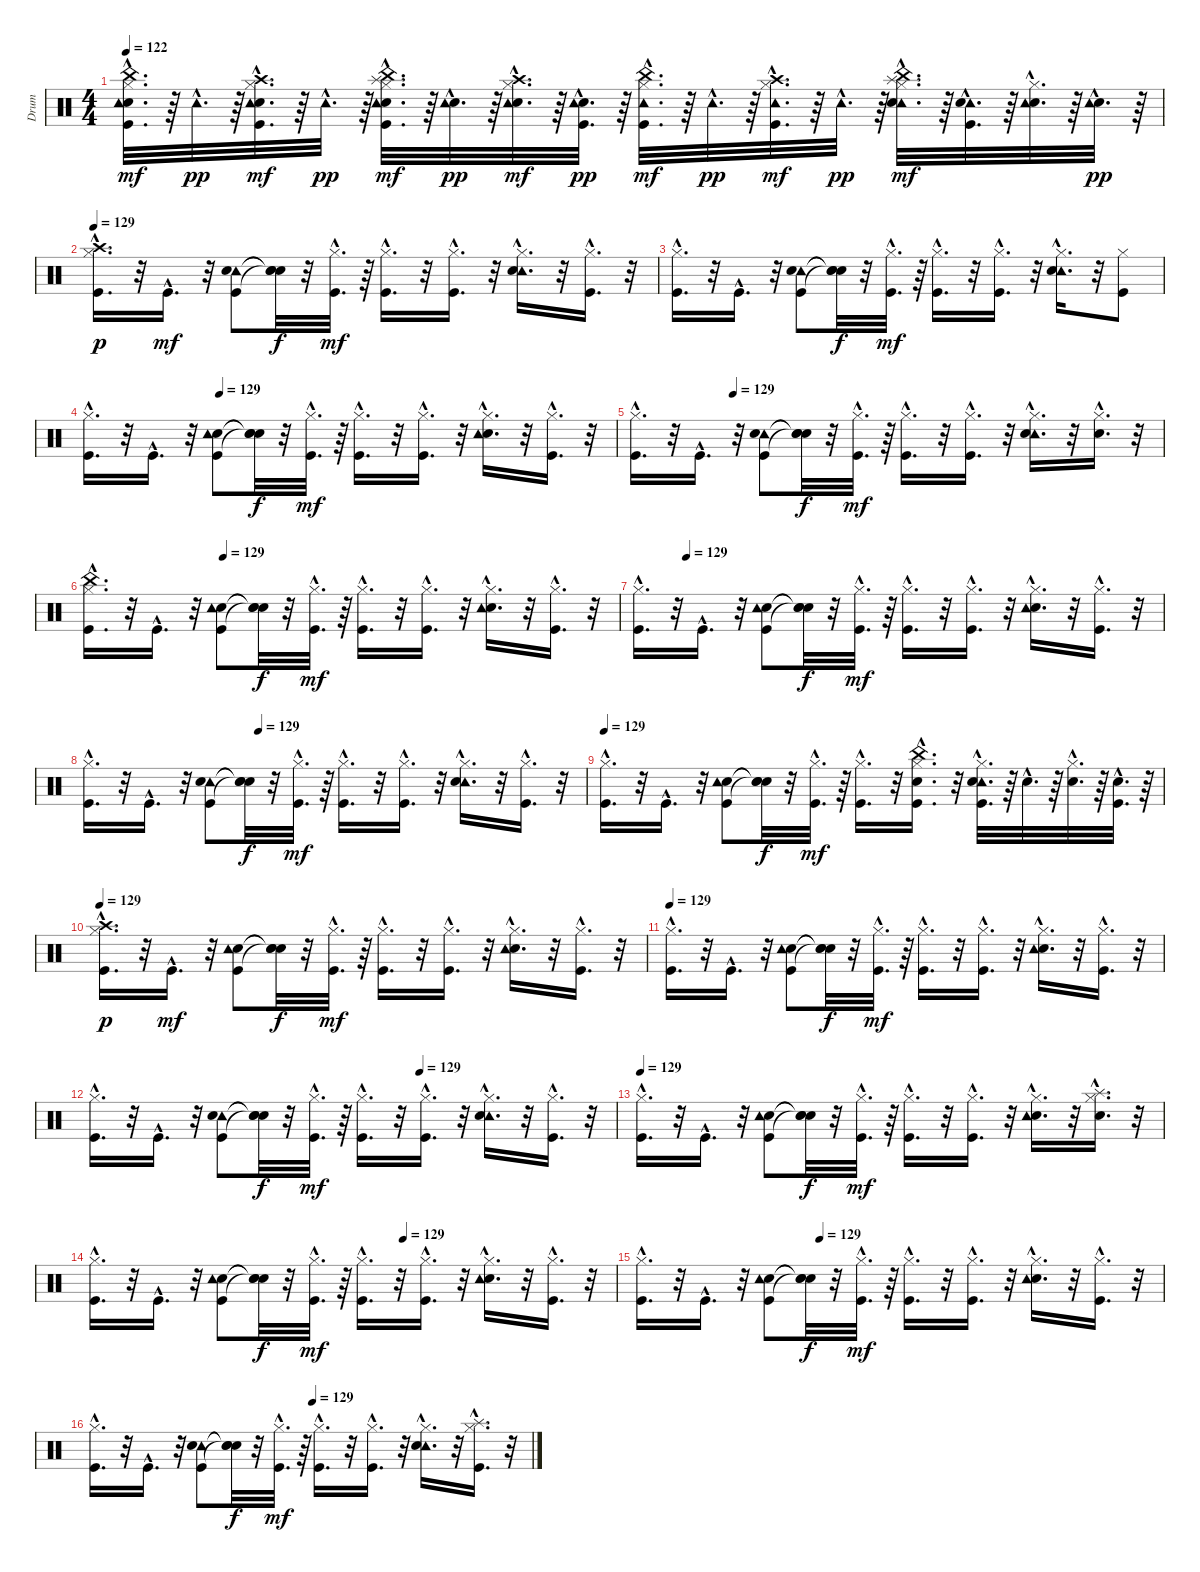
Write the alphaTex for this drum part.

\track ("Drum" "Drum") {instrument percussion}
\staff {score}
\articulation defaults
\ts (4 4)
\tempo 122
\clef neutral
\ks c
("China (hit)"{hac} "Snare (hit) 2"{hac} "Tambourine (hit)"{hac} "Kick (hit)"{hac} "Hi-Hat (closed)"{hac}).32{d dy mf} r.64 "Tambourine (hit)"{hac}.32{d dy pp} r.64 ("Crash high (hit)"{hac} "Snare (hit) 2"{hac} "Kick (hit)"{hac} "Tambourine (hit)"{hac} "Hi-Hat (closed)"{hac}).32{d dy mf} r.64 "Tambourine (hit)"{hac}.32{d dy pp} r.64 ("China (hit)"{hac} "Snare (hit) 2"{hac} "Splash (hit)"{hac} "Kick (hit)"{hac} "Tambourine (hit)"{hac} "Hi-Hat (closed)"{hac}).32{d dy mf} r.64 ("Snare (hit) 2"{hac} "Tambourine (hit)"{hac}).32{d dy pp} r.64 ("Crash high (hit)"{hac} "Snare (hit) 2"{hac} "Tambourine (hit)"{hac} "Hi-Hat (closed)"{hac}).32{d dy mf} r.64 ("Snare (hit) 2"{hac} "Kick (hit)"{hac} "Tambourine (hit)"{hac}).32{d dy pp} r.64 ("China (hit)"{hac} "Tambourine (hit)"{hac} "Hi-Hat (closed)"{hac} "Kick (hit)"{hac}).32{d dy mf} r.64 "Tambourine (hit)"{hac}.32{d dy pp} r.64 ("Crash high (hit)"{hac} "Tambourine (hit)"{hac} "Hi-Hat (closed)"{hac} "Kick (hit)"{hac}).32{d dy mf} r.64 "Tambourine (hit)"{hac}.32{d dy pp} r.64 ("China (hit)"{hac} "Tambourine (hit)"{hac} "Hi-Hat (closed)"{hac} "Snare (hit) 2"{hac} "Splash (hit)"{hac}).32{d dy mf} r.64 ("Tambourine (hit)"{hac} "Snare (hit) 2"{hac} "Kick (hit)"{hac}).32{d} r.64 ("Snare (hit) 2"{hac} "Tambourine (hit)"{hac} "Hi-Hat (closed)"{hac}).32{d} r.64 ("Snare (hit) 2"{hac} "Tambourine (hit)"{hac}).32{d dy pp} r.64 |
\tempo 129
("Hi-Hat (closed)"{hac} "Kick (hit)"{hac} "Crash high (hit)"{hac}).16{d dy p} r.32 "Kick (hit)"{hac}.16{d dy mf} r.32 ("Tambourine (hit)" "Kick (hit)" "Snare (hit) 2").8 ("Snare (hit)"{t} "Snare (hit)"{t} "Snare (hit)"{t}).32{dy f} r.32 ("Kick (hit)"{hac} "Hi-Hat (closed)"{hac}).32{d dy mf} r.64 ("Kick (hit)"{hac} "Hi-Hat (closed)"{hac}).16{d} r.32 ("Kick (hit)"{hac} "Hi-Hat (closed)"{hac}).16{d} r.32 ("Tambourine (hit)"{hac} "Snare (hit) 2"{hac} "Hi-Hat (closed)"{hac}).16{d} r.32 ("Kick (hit)"{hac} "Hi-Hat (closed)"{hac}).16{d} r.32 |
("Hi-Hat (closed)"{hac} "Kick (hit)"{hac}).16{d} r.32 "Kick (hit)"{hac}.16{d} r.32 ("Tambourine (hit)" "Kick (hit)" "Snare (hit) 2").8 ("Snare (hit)"{t} "Snare (hit)"{t} "Snare (hit)"{t}).32{dy f} r.32 ("Kick (hit)"{hac} "Hi-Hat (closed)"{hac}).32{d dy mf} r.64 ("Kick (hit)"{hac} "Hi-Hat (closed)"{hac}).16{d} r.32 ("Kick (hit)"{hac} "Hi-Hat (closed)"{hac}).16{d} r.32 ("Tambourine (hit)"{hac} "Snare (hit) 2"{hac} "Hi-Hat (closed)"{hac}).16{d} r.32 ("Kick (hit)" "Hi-Hat (closed)").8 |
\tempo (129 0.25)
("Kick (hit)"{hac} "Hi-Hat (closed)"{hac}).16{d} r.32 "Kick (hit)"{hac}.16{d} r.32 ("Snare (hit) 2" "Kick (hit)" "Tambourine (hit)").8 ("Snare (hit)"{t} "Snare (hit)"{t} "Snare (hit)"{t}).32{dy f} r.32 ("Hi-Hat (closed)"{hac} "Kick (hit)"{hac}).32{d dy mf} r.64 ("Hi-Hat (closed)"{hac} "Kick (hit)"{hac}).16{d} r.32 ("Hi-Hat (closed)"{hac} "Kick (hit)"{hac}).16{d} r.32 ("Hi-Hat (closed)"{hac} "Snare (hit) 2"{hac} "Tambourine (hit)"{hac}).16{d} r.32 ("Hi-Hat (closed)"{hac} "Kick (hit)"{hac}).16{d} r.32 |
\tempo (129 0.1875)
("Hi-Hat (closed)"{hac} "Kick (hit)"{hac}).16{d} r.32 "Kick (hit)"{hac}.16{d} r.32 ("Tambourine (hit)" "Kick (hit)" "Snare (hit) 2").8 ("Snare (hit)"{t} "Snare (hit)"{t} "Snare (hit)"{t}).32{dy f} r.32 ("Kick (hit)"{hac} "Hi-Hat (closed)"{hac}).32{d dy mf} r.64 ("Kick (hit)"{hac} "Hi-Hat (closed)"{hac}).16{d} r.32 ("Kick (hit)"{hac} "Hi-Hat (closed)"{hac}).16{d} r.32 ("Tambourine (hit)"{hac} "Snare (hit) 2"{hac} "Hi-Hat (closed)"{hac}).16{d} r.32 ("Hi-Hat (closed)"{hac} "Snare (hit) 2"{hac}).16{d} r.32 |
\tempo (129 0.25)
("Kick (hit)"{hac} "Hi-Hat (closed)"{hac} "China (hit)"{hac}).16{d} r.32 "Kick (hit)"{hac}.16{d} r.32 ("Snare (hit) 2" "Kick (hit)" "Tambourine (hit)").8 ("Snare (hit)"{t} "Snare (hit)"{t} "Snare (hit)"{t}).32{dy f} r.32 ("Hi-Hat (closed)"{hac} "Kick (hit)"{hac}).32{d dy mf} r.64 ("Hi-Hat (closed)"{hac} "Kick (hit)"{hac}).16{d} r.32 ("Hi-Hat (closed)"{hac} "Kick (hit)"{hac}).16{d} r.32 ("Hi-Hat (closed)"{hac} "Snare (hit) 2"{hac} "Tambourine (hit)"{hac}).16{d} r.32 ("Hi-Hat (closed)"{hac} "Kick (hit)"{hac}).16{d} r.32 |
\tempo (129 0.09375)
("Kick (hit)"{hac} "Hi-Hat (closed)"{hac}).16{d} r.32 "Kick (hit)"{hac}.16{d} r.32 ("Snare (hit) 2" "Kick (hit)" "Tambourine (hit)").8 ("Snare (hit)"{t} "Snare (hit)"{t} "Snare (hit)"{t}).32{dy f} r.32 ("Hi-Hat (closed)"{hac} "Kick (hit)"{hac}).32{d dy mf} r.64 ("Hi-Hat (closed)"{hac} "Kick (hit)"{hac}).16{d} r.32 ("Hi-Hat (closed)"{hac} "Kick (hit)"{hac}).16{d} r.32 ("Hi-Hat (closed)"{hac} "Snare (hit) 2"{hac} "Tambourine (hit)"{hac}).16{d} r.32 ("Hi-Hat (closed)"{hac} "Kick (hit)"{hac}).16{d} r.32 |
\tempo (129 0.34375)
("Hi-Hat (closed)"{hac} "Kick (hit)"{hac}).16{d} r.32 "Kick (hit)"{hac}.16{d} r.32 ("Tambourine (hit)" "Kick (hit)" "Snare (hit) 2").8 ("Snare (hit)"{t} "Snare (hit)"{t} "Snare (hit)"{t}).32{dy f} r.32 ("Kick (hit)"{hac} "Hi-Hat (closed)"{hac}).32{d dy mf} r.64 ("Kick (hit)"{hac} "Hi-Hat (closed)"{hac}).16{d} r.32 ("Kick (hit)"{hac} "Hi-Hat (closed)"{hac}).16{d} r.32 ("Tambourine (hit)"{hac} "Snare (hit) 2"{hac} "Hi-Hat (closed)"{hac}).16{d} r.32 ("Kick (hit)"{hac} "Hi-Hat (closed)"{hac}).16{d} r.32 |
\tempo 129
("Kick (hit)"{hac} "Hi-Hat (closed)"{hac}).16{d} r.32 "Kick (hit)"{hac}.16{d} r.32 ("Snare (hit) 2" "Kick (hit)" "Tambourine (hit)").8 ("Snare (hit)"{t} "Snare (hit)"{t} "Snare (hit)"{t}).32{dy f} r.32 ("Hi-Hat (closed)"{hac} "Kick (hit)"{hac}).32{d dy mf} r.64 ("Hi-Hat (closed)"{hac} "Kick (hit)"{hac}).16{d} r.32 ("Hi-Hat (closed)"{hac} "Kick (hit)"{hac} "Snare (hit) 2"{hac} "China (hit)"{hac}).16{d} r.32 ("Hi-Hat (closed)"{hac} "Tambourine (hit)"{hac} "Kick (hit)"{hac} "Snare (hit) 2"{hac}).32{d} r.64 "Snare (hit) 2"{hac}.32{d} r.64 ("Hi-Hat (closed)"{hac} "Snare (hit) 2"{hac}).32{d} r.64 ("Kick (hit)"{hac} "Snare (hit) 2"{hac}).32{d} r.64 |
\tempo 129
("Kick (hit)"{hac} "Hi-Hat (closed)"{hac} "Crash high (hit)"{hac}).16{d dy p} r.32 "Kick (hit)"{hac}.16{d dy mf} r.32 ("Snare (hit) 2" "Kick (hit)" "Tambourine (hit)").8 ("Snare (hit)"{t} "Snare (hit)"{t} "Snare (hit)"{t}).32{dy f} r.32 ("Hi-Hat (closed)"{hac} "Kick (hit)"{hac}).32{d dy mf} r.64 ("Hi-Hat (closed)"{hac} "Kick (hit)"{hac}).16{d} r.32 ("Hi-Hat (closed)"{hac} "Kick (hit)"{hac}).16{d} r.32 ("Hi-Hat (closed)"{hac} "Snare (hit) 2"{hac} "Tambourine (hit)"{hac}).16{d} r.32 ("Hi-Hat (closed)"{hac} "Kick (hit)"{hac}).16{d} r.32 |
\tempo 129
("Kick (hit)"{hac} "Hi-Hat (closed)"{hac}).16{d} r.32 "Kick (hit)"{hac}.16{d} r.32 ("Snare (hit) 2" "Kick (hit)" "Tambourine (hit)").8 ("Snare (hit)"{t} "Snare (hit)"{t} "Snare (hit)"{t}).32{dy f} r.32 ("Hi-Hat (closed)"{hac} "Kick (hit)"{hac}).32{d dy mf} r.64 ("Hi-Hat (closed)"{hac} "Kick (hit)"{hac}).16{d} r.32 ("Hi-Hat (closed)"{hac} "Kick (hit)"{hac}).16{d} r.32 ("Hi-Hat (closed)"{hac} "Snare (hit) 2"{hac} "Tambourine (hit)"{hac}).16{d} r.32 ("Hi-Hat (closed)"{hac} "Kick (hit)"{hac}).16{d} r.32 |
\tempo (129 0.625)
("Hi-Hat (closed)"{hac} "Kick (hit)"{hac}).16{d} r.32 "Kick (hit)"{hac}.16{d} r.32 ("Tambourine (hit)" "Kick (hit)" "Snare (hit) 2").8 ("Snare (hit)"{t} "Snare (hit)"{t} "Snare (hit)"{t}).32{dy f} r.32 ("Kick (hit)"{hac} "Hi-Hat (closed)"{hac}).32{d dy mf} r.64 ("Kick (hit)"{hac} "Hi-Hat (closed)"{hac}).16{d} r.32 ("Kick (hit)"{hac} "Hi-Hat (closed)"{hac}).16{d} r.32 ("Tambourine (hit)"{hac} "Snare (hit) 2"{hac} "Hi-Hat (closed)"{hac}).16{d} r.32 ("Kick (hit)"{hac} "Hi-Hat (closed)"{hac}).16{d} r.32 |
\tempo 129
("Kick (hit)"{hac} "Hi-Hat (closed)"{hac}).16{d} r.32 "Kick (hit)"{hac}.16{d} r.32 ("Snare (hit) 2" "Kick (hit)" "Tambourine (hit)").8 ("Snare (hit)"{t} "Snare (hit)"{t} "Snare (hit)"{t}).32{dy f} r.32 ("Hi-Hat (closed)"{hac} "Kick (hit)"{hac}).32{d dy mf} r.64 ("Hi-Hat (closed)"{hac} "Kick (hit)"{hac}).16{d} r.32 ("Hi-Hat (closed)"{hac} "Kick (hit)"{hac}).16{d} r.32 ("Hi-Hat (closed)"{hac} "Snare (hit) 2"{hac} "Tambourine (hit)"{hac}).16{d} r.32 ("Snare (hit) 2"{hac} "Hi-Hat (closed)"{hac} "Splash (hit)"{hac}).16{d} r.32 |
\tempo (129 0.59375)
("Kick (hit)"{hac} "Hi-Hat (closed)"{hac}).16{d} r.32 "Kick (hit)"{hac}.16{d} r.32 ("Snare (hit) 2" "Kick (hit)" "Tambourine (hit)").8 ("Snare (hit)"{t} "Snare (hit)"{t} "Snare (hit)"{t}).32{dy f} r.32 ("Hi-Hat (closed)"{hac} "Kick (hit)"{hac}).32{d dy mf} r.64 ("Hi-Hat (closed)"{hac} "Kick (hit)"{hac}).16{d} r.32 ("Hi-Hat (closed)"{hac} "Kick (hit)"{hac}).16{d} r.32 ("Hi-Hat (closed)"{hac} "Snare (hit) 2"{hac} "Tambourine (hit)"{hac}).16{d} r.32 ("Hi-Hat (closed)"{hac} "Kick (hit)"{hac}).16{d} r.32 |
\tempo (129 0.34375)
("Kick (hit)"{hac} "Hi-Hat (closed)"{hac}).16{d} r.32 "Kick (hit)"{hac}.16{d} r.32 ("Snare (hit) 2" "Kick (hit)" "Tambourine (hit)").8 ("Snare (hit)"{t} "Snare (hit)"{t} "Snare (hit)"{t}).32{dy f} r.32 ("Hi-Hat (closed)"{hac} "Kick (hit)"{hac}).32{d dy mf} r.64 ("Hi-Hat (closed)"{hac} "Kick (hit)"{hac}).16{d} r.32 ("Hi-Hat (closed)"{hac} "Kick (hit)"{hac}).16{d} r.32 ("Hi-Hat (closed)"{hac} "Snare (hit) 2"{hac} "Tambourine (hit)"{hac}).16{d} r.32 ("Hi-Hat (closed)"{hac} "Kick (hit)"{hac}).16{d} r.32 |
\tempo (129 0.5)
("Hi-Hat (closed)"{hac} "Kick (hit)"{hac}).16{d} r.32 "Kick (hit)"{hac}.16{d} r.32 ("Tambourine (hit)" "Kick (hit)" "Snare (hit) 2").8 ("Snare (hit)"{t} "Snare (hit)"{t} "Snare (hit)"{t}).32{dy f} r.32 ("Kick (hit)"{hac} "Hi-Hat (closed)"{hac}).32{d dy mf} r.64 ("Kick (hit)"{hac} "Hi-Hat (closed)"{hac}).16{d} r.32 ("Kick (hit)"{hac} "Hi-Hat (closed)"{hac}).16{d} r.32 ("Tambourine (hit)"{hac} "Snare (hit) 2"{hac} "Hi-Hat (closed)"{hac}).16{d} r.32 ("Kick (hit)"{hac} "Hi-Hat (closed)"{hac} "Splash (hit)"{hac}).16{d} r.32
